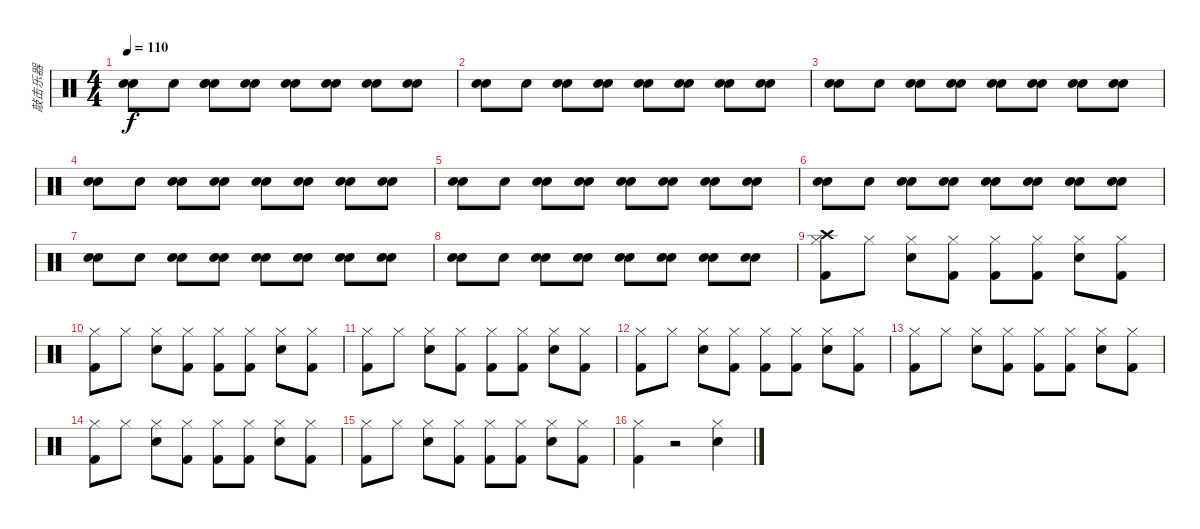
\track ("敲击乐器" "敲击乐器") {instrument percussion}
\staff {score}
\articulation defaults
\ts (4 4)
\tempo 110
\clef neutral
\ks c
("Snare (hit)" "Snare (hit)").8{dy f} "Snare (hit)".8 ("Snare (hit)" "Snare (hit)" "Snare (hit)").8 ("Snare (hit)" "Snare (hit)").8 ("Snare (hit)" "Snare (hit)").8 ("Snare (hit)" "Snare (hit)").8 ("Snare (hit)" "Snare (hit)").8 ("Snare (hit)" "Snare (hit)").8 |
("Snare (hit)" "Snare (hit)").8 "Snare (hit)".8 ("Snare (hit)" "Snare (hit)").8 ("Snare (hit)" "Snare (hit)").8 ("Snare (hit)" "Snare (hit)").8 ("Snare (hit)" "Snare (hit)").8 ("Snare (hit)" "Snare (hit)").8 ("Snare (hit)" "Snare (hit)").8 |
("Snare (hit)" "Snare (hit)").8 "Snare (hit)".8 ("Snare (hit)" "Snare (hit)").8 ("Snare (hit)" "Snare (hit)").8 ("Snare (hit)" "Snare (hit)").8 ("Snare (hit)" "Snare (hit)").8 ("Snare (hit)" "Snare (hit)").8 ("Snare (hit)" "Snare (hit)").8 |
("Snare (hit)" "Snare (hit)").8 "Snare (hit)".8 ("Snare (hit)" "Snare (hit)").8 ("Snare (hit)" "Snare (hit)").8 ("Snare (hit)" "Snare (hit)").8 ("Snare (hit)" "Snare (hit)").8 ("Snare (hit)" "Snare (hit)").8 ("Snare (hit)" "Snare (hit)").8 |
("Snare (hit)" "Snare (hit)").8 "Snare (hit)".8 ("Snare (hit)" "Snare (hit)").8 ("Snare (hit)" "Snare (hit)").8 ("Snare (hit)" "Snare (hit)").8 ("Snare (hit)" "Snare (hit)").8 ("Snare (hit)" "Snare (hit)").8 ("Snare (hit)" "Snare (hit)").8 |
("Snare (hit)" "Snare (hit)").8 "Snare (hit)".8 ("Snare (hit)" "Snare (hit)").8 ("Snare (hit)" "Snare (hit)").8 ("Snare (hit)" "Snare (hit)").8 ("Snare (hit)" "Snare (hit)").8 ("Snare (hit)" "Snare (hit)").8 ("Snare (hit)" "Snare (hit)").8 |
("Snare (hit)" "Snare (hit)").8 "Snare (hit)".8 ("Snare (hit)" "Snare (hit)").8 ("Snare (hit)" "Snare (hit)").8 ("Snare (hit)" "Snare (hit)").8 ("Snare (hit)" "Snare (hit)").8 ("Snare (hit)" "Snare (hit)").8 ("Snare (hit)" "Snare (hit)").8 |
("Snare (hit)" "Snare (hit)").8 "Snare (hit)".8 ("Snare (hit)" "Snare (hit)").8 ("Snare (hit)" "Snare (hit)").8 ("Snare (hit)" "Snare (hit)").8 ("Snare (hit)" "Snare (hit)").8 ("Snare (hit)" "Snare (hit)").8 ("Snare (hit)" "Snare (hit)").8 |
("Crash high (hit)" "Hi-Hat (closed)" "Kick (hit) 2").8 "Hi-Hat (closed)".8 ("Electric Snare (hit)" "Hi-Hat (closed)").8 ("Hi-Hat (closed)" "Kick (hit) 2").8 ("Kick (hit) 2" "Hi-Hat (closed)").8 ("Hi-Hat (closed)" "Kick (hit) 2").8 ("Electric Snare (hit)" "Hi-Hat (closed)").8 ("Hi-Hat (closed)" "Kick (hit) 2").8 |
("Kick (hit) 2" "Hi-Hat (closed)").8 "Hi-Hat (closed)".8 ("Hi-Hat (closed)" "Electric Snare (hit)").8 ("Kick (hit) 2" "Hi-Hat (closed)").8 ("Hi-Hat (closed)" "Kick (hit) 2").8 ("Kick (hit) 2" "Hi-Hat (closed)").8 ("Hi-Hat (closed)" "Electric Snare (hit)").8 ("Kick (hit) 2" "Hi-Hat (closed)").8 |
("Hi-Hat (closed)" "Kick (hit) 2").8 "Hi-Hat (closed)".8 ("Electric Snare (hit)" "Hi-Hat (closed)").8 ("Hi-Hat (closed)" "Kick (hit) 2").8 ("Kick (hit) 2" "Hi-Hat (closed)").8 ("Kick (hit) 2" "Hi-Hat (closed)").8 ("Electric Snare (hit)" "Hi-Hat (closed)").8 ("Hi-Hat (closed)" "Kick (hit) 2").8 |
("Kick (hit) 2" "Hi-Hat (closed)").8 "Hi-Hat (closed)".8 ("Hi-Hat (closed)" "Electric Snare (hit)").8 ("Kick (hit) 2" "Hi-Hat (closed)").8 ("Hi-Hat (closed)" "Kick (hit) 2").8 ("Hi-Hat (closed)" "Kick (hit) 2").8 ("Hi-Hat (closed)" "Electric Snare (hit)").8 ("Kick (hit) 2" "Hi-Hat (closed)").8 |
("Hi-Hat (closed)" "Kick (hit) 2").8 "Hi-Hat (closed)".8 ("Electric Snare (hit)" "Hi-Hat (closed)").8 ("Hi-Hat (closed)" "Kick (hit) 2").8 ("Kick (hit) 2" "Hi-Hat (closed)").8 ("Kick (hit) 2" "Hi-Hat (closed)").8 ("Electric Snare (hit)" "Hi-Hat (closed)").8 ("Hi-Hat (closed)" "Kick (hit) 2").8 |
("Kick (hit) 2" "Hi-Hat (closed)").8 "Hi-Hat (closed)".8 ("Electric Snare (hit)" "Hi-Hat (closed)").8 ("Hi-Hat (closed)" "Kick (hit) 2").8 ("Hi-Hat (closed)" "Kick (hit) 2").8 ("Kick (hit) 2" "Hi-Hat (closed)").8 ("Hi-Hat (closed)" "Electric Snare (hit)").8 ("Kick (hit) 2" "Hi-Hat (closed)").8 |
("Kick (hit) 2" "Hi-Hat (closed)").8 "Hi-Hat (closed)".8 ("Hi-Hat (closed)" "Electric Snare (hit)").8 ("Hi-Hat (closed)" "Kick (hit) 2").8 ("Kick (hit) 2" "Hi-Hat (closed)").8 ("Hi-Hat (closed)" "Kick (hit) 2").8 ("Electric Snare (hit)" "Hi-Hat (closed)").8 ("Hi-Hat (closed)" "Kick (hit) 2").8 |
("Kick (hit) 2" "Hi-Hat (closed)").4 r.2 ("Hi-Hat (closed)" "Electric Snare (hit)").4
